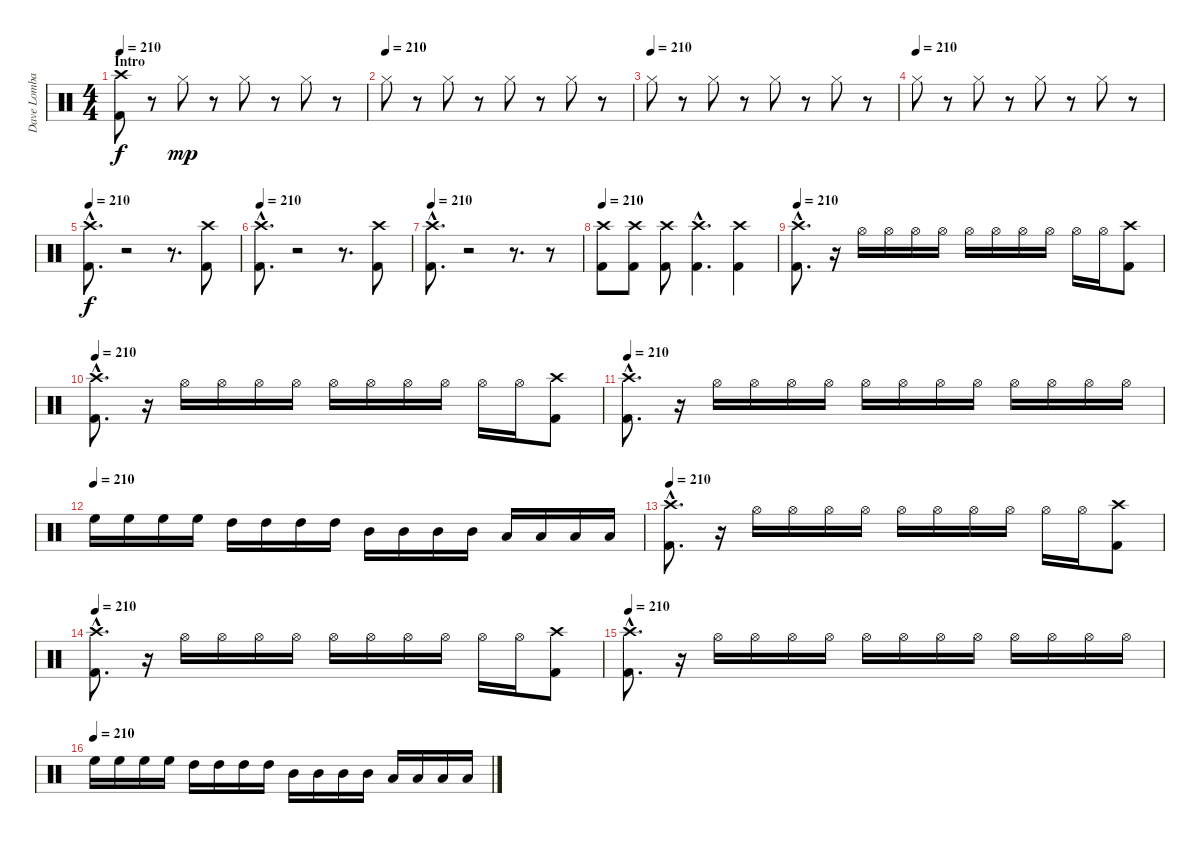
\track ("Dave Lombardo" "Dave Lomba") {instrument percussion}
\staff {score}
\articulation defaults
\ts (4 4)
\section ("" "Intro")
\tempo 210
\clef neutral
\ks c
("Crash high (hit)" "Kick (hit) 2").8{dy f} r.8 "Hi-Hat (closed)".8{dy mp} r.8 "Hi-Hat (closed)".8 r.8 "Hi-Hat (closed)".8 r.8 |
\tempo (210)
"Hi-Hat (closed)".8 r.8 "Hi-Hat (closed)".8 r.8 "Hi-Hat (closed)".8 r.8 "Hi-Hat (closed)".8 r.8 |
\tempo (210)
"Hi-Hat (closed)".8 r.8 "Hi-Hat (closed)".8 r.8 "Hi-Hat (closed)".8 r.8 "Hi-Hat (closed)".8 r.8 |
\tempo (210)
"Hi-Hat (closed)".8 r.8 "Hi-Hat (closed)".8 r.8 "Hi-Hat (closed)".8 r.8 "Hi-Hat (closed)".8 r.8 |
\tempo 210
("Crash high (hit)"{hac} "Kick (hit) 2"{hac}).8{d dy f} r.2 r.8{d} ("Crash high (hit)" "Kick (hit) 2").8 |
\tempo 210
("Crash high (hit)"{hac} "Kick (hit) 2"{hac}).8{d} r.2 r.8{d} ("Crash high (hit)" "Kick (hit) 2").8 |
\tempo 210
("Crash high (hit)"{hac} "Kick (hit) 2"{hac}).8{d} r.2 r.8{d} r.8 |
\tempo 210
("Crash high (hit)" "Kick (hit) 2").8 ("Crash high (hit)" "Kick (hit) 2").8 ("Crash high (hit)" "Kick (hit) 2").8 ("Crash high (hit)"{hac} "Kick (hit) 2"{hac}).4{d} ("Crash high (hit)" "Kick (hit) 2").4 |
\tempo 210
("Crash high (hit)"{hac} "Kick (hit) 2"{hac}).8{d} r.16 "Hi-Hat (open)".16 "Hi-Hat (open)".16 "Hi-Hat (open)".16 "Hi-Hat (open)".16 "Hi-Hat (open)".16 "Hi-Hat (open)".16 "Hi-Hat (open)".16 "Hi-Hat (open)".16 "Hi-Hat (open)".16 "Hi-Hat (open)".16 ("Crash high (hit)" "Kick (hit) 2").8 |
\tempo 210
("Crash high (hit)"{hac} "Kick (hit) 2"{hac}).8{d} r.16 "Hi-Hat (open)".16 "Hi-Hat (open)".16 "Hi-Hat (open)".16 "Hi-Hat (open)".16 "Hi-Hat (open)".16 "Hi-Hat (open)".16 "Hi-Hat (open)".16 "Hi-Hat (open)".16 "Hi-Hat (open)".16 "Hi-Hat (open)".16 ("Crash high (hit)" "Kick (hit) 2").8 |
\tempo 210
("Crash high (hit)"{hac} "Kick (hit) 2"{hac}).8{d} r.16 "Hi-Hat (open)".16 "Hi-Hat (open)".16 "Hi-Hat (open)".16 "Hi-Hat (open)".16 "Hi-Hat (open)".16 "Hi-Hat (open)".16 "Hi-Hat (open)".16 "Hi-Hat (open)".16 "Hi-Hat (open)".16 "Hi-Hat (open)".16 "Hi-Hat (open)".16 "Hi-Hat (open)".16 |
\tempo (210)
"High Floor Tom (hit)".16 "High Floor Tom (hit)".16 "High Floor Tom (hit)".16 "High Floor Tom (hit)".16 "High Tom (hit)".16 "High Tom (hit)".16 "High Tom (hit)".16 "High Tom (hit)".16 "Mid Tom (hit)".16 "Mid Tom (hit)".16 "Mid Tom (hit)".16 "Mid Tom (hit)".16 "Low Tom (hit)".16 "Low Tom (hit)".16 "Low Tom (hit)".16 "Low Tom (hit)".16 |
\tempo 210
("Crash high (hit)"{hac} "Kick (hit) 2"{hac}).8{d} r.16 "Hi-Hat (open)".16 "Hi-Hat (open)".16 "Hi-Hat (open)".16 "Hi-Hat (open)".16 "Hi-Hat (open)".16 "Hi-Hat (open)".16 "Hi-Hat (open)".16 "Hi-Hat (open)".16 "Hi-Hat (open)".16 "Hi-Hat (open)".16 ("Crash high (hit)" "Kick (hit) 2").8 |
\tempo 210
("Crash high (hit)"{hac} "Kick (hit) 2"{hac}).8{d} r.16 "Hi-Hat (open)".16 "Hi-Hat (open)".16 "Hi-Hat (open)".16 "Hi-Hat (open)".16 "Hi-Hat (open)".16 "Hi-Hat (open)".16 "Hi-Hat (open)".16 "Hi-Hat (open)".16 "Hi-Hat (open)".16 "Hi-Hat (open)".16 ("Crash high (hit)" "Kick (hit) 2").8 |
\tempo 210
("Crash high (hit)"{hac} "Kick (hit) 2"{hac}).8{d} r.16 "Hi-Hat (open)".16 "Hi-Hat (open)".16 "Hi-Hat (open)".16 "Hi-Hat (open)".16 "Hi-Hat (open)".16 "Hi-Hat (open)".16 "Hi-Hat (open)".16 "Hi-Hat (open)".16 "Hi-Hat (open)".16 "Hi-Hat (open)".16 "Hi-Hat (open)".16 "Hi-Hat (open)".16 |
\tempo (210)
"High Floor Tom (hit)".16 "High Floor Tom (hit)".16 "High Floor Tom (hit)".16 "High Floor Tom (hit)".16 "High Tom (hit)".16 "High Tom (hit)".16 "High Tom (hit)".16 "High Tom (hit)".16 "Mid Tom (hit)".16 "Mid Tom (hit)".16 "Mid Tom (hit)".16 "Mid Tom (hit)".16 "Low Tom (hit)".16 "Low Tom (hit)".16 "Low Tom (hit)".16 "Low Tom (hit)".16
